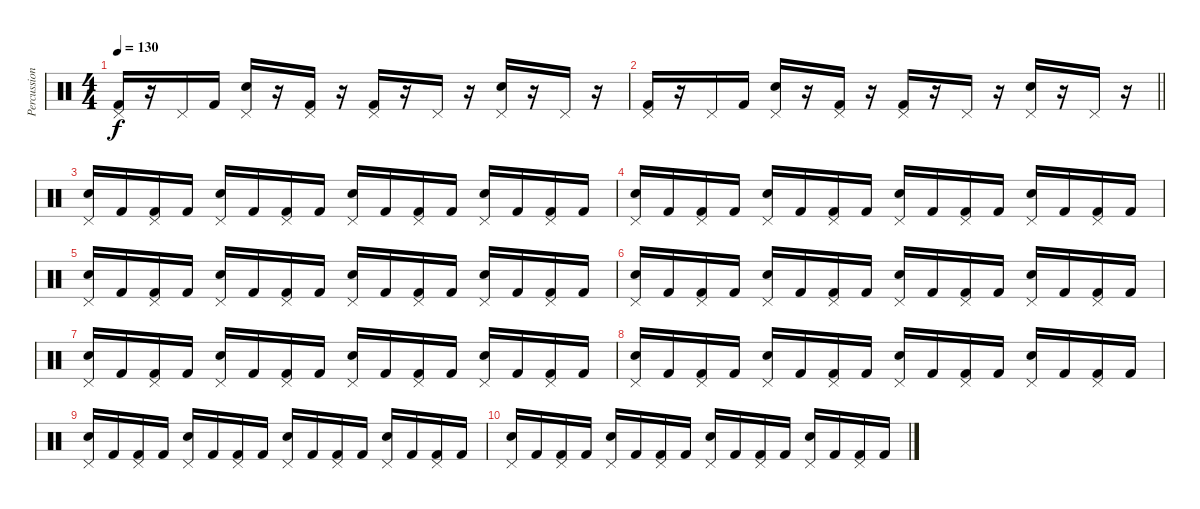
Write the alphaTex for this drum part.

\track ("Percussion" "Percussion") {instrument percussion}
\staff {score}
\articulation defaults
\ts (4 4)
\tempo 130
\clef neutral
\ks c
("Kick (hit) 2" "Pedal Hi-Hat (hit)").16{dy f} r.16 "Pedal Hi-Hat (hit)".16 "Kick (hit) 2".16 ("Electric Snare (hit)" "Pedal Hi-Hat (hit)").16 r.16 ("Kick (hit) 2" "Pedal Hi-Hat (hit)").16 r.16 ("Kick (hit) 2" "Pedal Hi-Hat (hit)").16 r.16 "Pedal Hi-Hat (hit)".16 r.16 ("Electric Snare (hit)" "Pedal Hi-Hat (hit)").16 r.16 "Pedal Hi-Hat (hit)".16 r.16 |
\barLineRight lightlight
("Kick (hit) 2" "Pedal Hi-Hat (hit)").16 r.16 "Pedal Hi-Hat (hit)".16 "Kick (hit) 2".16 ("Electric Snare (hit)" "Pedal Hi-Hat (hit)").16 r.16 ("Kick (hit) 2" "Pedal Hi-Hat (hit)").16 r.16 ("Kick (hit) 2" "Pedal Hi-Hat (hit)").16 r.16 "Pedal Hi-Hat (hit)".16 r.16 ("Electric Snare (hit)" "Pedal Hi-Hat (hit)").16 r.16 "Pedal Hi-Hat (hit)".16 r.16 |
\section ("" "")
("Electric Snare (hit)" "Pedal Hi-Hat (hit)").16 "Kick (hit) 2".16 ("Kick (hit) 2" "Pedal Hi-Hat (hit)").16 "Kick (hit) 2".16 ("Electric Snare (hit)" "Pedal Hi-Hat (hit)").16 "Kick (hit) 2".16 ("Kick (hit) 2" "Pedal Hi-Hat (hit)").16 "Kick (hit) 2".16 ("Electric Snare (hit)" "Pedal Hi-Hat (hit)").16 "Kick (hit) 2".16 ("Kick (hit) 2" "Pedal Hi-Hat (hit)").16 "Kick (hit) 2".16 ("Electric Snare (hit)" "Pedal Hi-Hat (hit)").16 "Kick (hit) 2".16 ("Kick (hit) 2" "Pedal Hi-Hat (hit)").16 "Kick (hit) 2".16 |
("Electric Snare (hit)" "Pedal Hi-Hat (hit)").16 "Kick (hit) 2".16 ("Kick (hit) 2" "Pedal Hi-Hat (hit)").16 "Kick (hit) 2".16 ("Electric Snare (hit)" "Pedal Hi-Hat (hit)").16 "Kick (hit) 2".16 ("Kick (hit) 2" "Pedal Hi-Hat (hit)").16 "Kick (hit) 2".16 ("Electric Snare (hit)" "Pedal Hi-Hat (hit)").16 "Kick (hit) 2".16 ("Kick (hit) 2" "Pedal Hi-Hat (hit)").16 "Kick (hit) 2".16 ("Electric Snare (hit)" "Pedal Hi-Hat (hit)").16 "Kick (hit) 2".16 ("Kick (hit) 2" "Pedal Hi-Hat (hit)").16 "Kick (hit) 2".16 |
("Electric Snare (hit)" "Pedal Hi-Hat (hit)").16 "Kick (hit) 2".16 ("Kick (hit) 2" "Pedal Hi-Hat (hit)").16 "Kick (hit) 2".16 ("Electric Snare (hit)" "Pedal Hi-Hat (hit)").16 "Kick (hit) 2".16 ("Kick (hit) 2" "Pedal Hi-Hat (hit)").16 "Kick (hit) 2".16 ("Electric Snare (hit)" "Pedal Hi-Hat (hit)").16 "Kick (hit) 2".16 ("Kick (hit) 2" "Pedal Hi-Hat (hit)").16 "Kick (hit) 2".16 ("Electric Snare (hit)" "Pedal Hi-Hat (hit)").16 "Kick (hit) 2".16 ("Kick (hit) 2" "Pedal Hi-Hat (hit)").16 "Kick (hit) 2".16 |
("Electric Snare (hit)" "Pedal Hi-Hat (hit)").16 "Kick (hit) 2".16 ("Kick (hit) 2" "Pedal Hi-Hat (hit)").16 "Kick (hit) 2".16 ("Electric Snare (hit)" "Pedal Hi-Hat (hit)").16 "Kick (hit) 2".16 ("Kick (hit) 2" "Pedal Hi-Hat (hit)").16 "Kick (hit) 2".16 ("Electric Snare (hit)" "Pedal Hi-Hat (hit)").16 "Kick (hit) 2".16 ("Kick (hit) 2" "Pedal Hi-Hat (hit)").16 "Kick (hit) 2".16 ("Electric Snare (hit)" "Pedal Hi-Hat (hit)").16 "Kick (hit) 2".16 ("Kick (hit) 2" "Pedal Hi-Hat (hit)").16 "Kick (hit) 2".16 |
("Electric Snare (hit)" "Pedal Hi-Hat (hit)").16 "Kick (hit) 2".16 ("Kick (hit) 2" "Pedal Hi-Hat (hit)").16 "Kick (hit) 2".16 ("Electric Snare (hit)" "Pedal Hi-Hat (hit)").16 "Kick (hit) 2".16 ("Kick (hit) 2" "Pedal Hi-Hat (hit)").16 "Kick (hit) 2".16 ("Electric Snare (hit)" "Pedal Hi-Hat (hit)").16 "Kick (hit) 2".16 ("Kick (hit) 2" "Pedal Hi-Hat (hit)").16 "Kick (hit) 2".16 ("Electric Snare (hit)" "Pedal Hi-Hat (hit)").16 "Kick (hit) 2".16 ("Kick (hit) 2" "Pedal Hi-Hat (hit)").16 "Kick (hit) 2".16 |
("Electric Snare (hit)" "Pedal Hi-Hat (hit)").16 "Kick (hit) 2".16 ("Kick (hit) 2" "Pedal Hi-Hat (hit)").16 "Kick (hit) 2".16 ("Electric Snare (hit)" "Pedal Hi-Hat (hit)").16 "Kick (hit) 2".16 ("Kick (hit) 2" "Pedal Hi-Hat (hit)").16 "Kick (hit) 2".16 ("Electric Snare (hit)" "Pedal Hi-Hat (hit)").16 "Kick (hit) 2".16 ("Kick (hit) 2" "Pedal Hi-Hat (hit)").16 "Kick (hit) 2".16 ("Electric Snare (hit)" "Pedal Hi-Hat (hit)").16 "Kick (hit) 2".16 ("Kick (hit) 2" "Pedal Hi-Hat (hit)").16 "Kick (hit) 2".16 |
("Electric Snare (hit)" "Pedal Hi-Hat (hit)").16 "Kick (hit) 2".16 ("Kick (hit) 2" "Pedal Hi-Hat (hit)").16 "Kick (hit) 2".16 ("Electric Snare (hit)" "Pedal Hi-Hat (hit)").16 "Kick (hit) 2".16 ("Kick (hit) 2" "Pedal Hi-Hat (hit)").16 "Kick (hit) 2".16 ("Electric Snare (hit)" "Pedal Hi-Hat (hit)").16 "Kick (hit) 2".16 ("Kick (hit) 2" "Pedal Hi-Hat (hit)").16 "Kick (hit) 2".16 ("Electric Snare (hit)" "Pedal Hi-Hat (hit)").16 "Kick (hit) 2".16 ("Kick (hit) 2" "Pedal Hi-Hat (hit)").16 "Kick (hit) 2".16 |
("Electric Snare (hit)" "Pedal Hi-Hat (hit)").16 "Kick (hit) 2".16 ("Kick (hit) 2" "Pedal Hi-Hat (hit)").16 "Kick (hit) 2".16 ("Electric Snare (hit)" "Pedal Hi-Hat (hit)").16 "Kick (hit) 2".16 ("Kick (hit) 2" "Pedal Hi-Hat (hit)").16 "Kick (hit) 2".16 ("Electric Snare (hit)" "Pedal Hi-Hat (hit)").16 "Kick (hit) 2".16 ("Kick (hit) 2" "Pedal Hi-Hat (hit)").16 "Kick (hit) 2".16 ("Electric Snare (hit)" "Pedal Hi-Hat (hit)").16 "Kick (hit) 2".16 ("Kick (hit) 2" "Pedal Hi-Hat (hit)").16 "Kick (hit) 2".16
